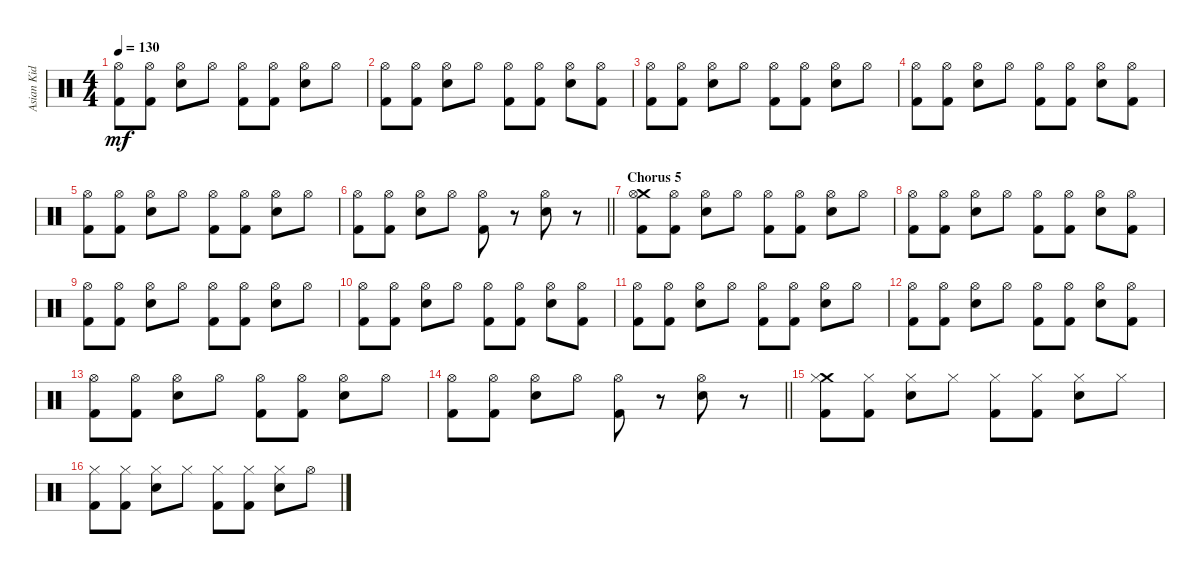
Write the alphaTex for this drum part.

\track ("Asian Kid" "Asian Kid") {instrument percussion}
\staff {score}
\articulation defaults
\ts (4 4)
\tempo 130
\clef neutral
\ks c
("Hi-Hat (open)" "Kick (hit) 2").8{dy mf} ("Hi-Hat (open)" "Kick (hit) 2").8 ("Hi-Hat (open)" "Electric Snare (hit)").8 "Hi-Hat (open)".8 ("Hi-Hat (open)" "Kick (hit) 2").8 ("Hi-Hat (open)" "Kick (hit) 2").8 ("Hi-Hat (open)" "Electric Snare (hit)").8 "Hi-Hat (open)".8 |
("Hi-Hat (open)" "Kick (hit) 2").8 ("Hi-Hat (open)" "Kick (hit) 2").8 ("Hi-Hat (open)" "Electric Snare (hit)").8 "Hi-Hat (open)".8 ("Hi-Hat (open)" "Kick (hit) 2").8 ("Hi-Hat (open)" "Kick (hit) 2").8 ("Hi-Hat (open)" "Electric Snare (hit)").8 ("Hi-Hat (open)" "Kick (hit) 2").8 |
("Hi-Hat (open)" "Kick (hit) 2").8 ("Hi-Hat (open)" "Kick (hit) 2").8 ("Hi-Hat (open)" "Electric Snare (hit)").8 "Hi-Hat (open)".8 ("Hi-Hat (open)" "Kick (hit) 2").8 ("Hi-Hat (open)" "Kick (hit) 2").8 ("Hi-Hat (open)" "Electric Snare (hit)").8 "Hi-Hat (open)".8 |
("Hi-Hat (open)" "Kick (hit) 2").8 ("Hi-Hat (open)" "Kick (hit) 2").8 ("Hi-Hat (open)" "Electric Snare (hit)").8 "Hi-Hat (open)".8 ("Hi-Hat (open)" "Kick (hit) 2").8 ("Hi-Hat (open)" "Kick (hit) 2").8 ("Hi-Hat (open)" "Electric Snare (hit)").8 ("Hi-Hat (open)" "Kick (hit) 2").8 |
("Hi-Hat (open)" "Kick (hit) 2").8 ("Hi-Hat (open)" "Kick (hit) 2").8 ("Hi-Hat (open)" "Electric Snare (hit)").8 "Hi-Hat (open)".8 ("Hi-Hat (open)" "Kick (hit) 2").8 ("Hi-Hat (open)" "Kick (hit) 2").8 ("Hi-Hat (open)" "Electric Snare (hit)").8 "Hi-Hat (open)".8 |
\barLineRight lightlight
("Hi-Hat (open)" "Kick (hit) 2").8 ("Hi-Hat (open)" "Kick (hit) 2").8 ("Hi-Hat (open)" "Electric Snare (hit)").8 "Hi-Hat (open)".8 ("Hi-Hat (open)" "Kick (hit) 2").8 r.8 ("Hi-Hat (open)" "Electric Snare (hit)").8 r.8 |
\section ("" "Chorus 5")
("Crash medium (hit)" "Hi-Hat (open)" "Kick (hit) 2").8 ("Hi-Hat (open)" "Kick (hit) 2").8 ("Hi-Hat (open)" "Electric Snare (hit)").8 "Hi-Hat (open)".8 ("Hi-Hat (open)" "Kick (hit) 2").8 ("Hi-Hat (open)" "Kick (hit) 2").8 ("Hi-Hat (open)" "Electric Snare (hit)").8 "Hi-Hat (open)".8 |
("Hi-Hat (open)" "Kick (hit) 2").8 ("Hi-Hat (open)" "Kick (hit) 2").8 ("Hi-Hat (open)" "Electric Snare (hit)").8 "Hi-Hat (open)".8 ("Hi-Hat (open)" "Kick (hit) 2").8 ("Hi-Hat (open)" "Kick (hit) 2").8 ("Hi-Hat (open)" "Electric Snare (hit)").8 ("Hi-Hat (open)" "Kick (hit) 2").8 |
("Hi-Hat (open)" "Kick (hit) 2").8 ("Hi-Hat (open)" "Kick (hit) 2").8 ("Hi-Hat (open)" "Electric Snare (hit)").8 "Hi-Hat (open)".8 ("Hi-Hat (open)" "Kick (hit) 2").8 ("Hi-Hat (open)" "Kick (hit) 2").8 ("Hi-Hat (open)" "Electric Snare (hit)").8 "Hi-Hat (open)".8 |
("Hi-Hat (open)" "Kick (hit) 2").8 ("Hi-Hat (open)" "Kick (hit) 2").8 ("Hi-Hat (open)" "Electric Snare (hit)").8 "Hi-Hat (open)".8 ("Hi-Hat (open)" "Kick (hit) 2").8 ("Hi-Hat (open)" "Kick (hit) 2").8 ("Hi-Hat (open)" "Electric Snare (hit)").8 ("Hi-Hat (open)" "Kick (hit) 2").8 |
("Hi-Hat (open)" "Kick (hit) 2").8 ("Hi-Hat (open)" "Kick (hit) 2").8 ("Hi-Hat (open)" "Electric Snare (hit)").8 "Hi-Hat (open)".8 ("Hi-Hat (open)" "Kick (hit) 2").8 ("Hi-Hat (open)" "Kick (hit) 2").8 ("Hi-Hat (open)" "Electric Snare (hit)").8 "Hi-Hat (open)".8 |
("Hi-Hat (open)" "Kick (hit) 2").8 ("Hi-Hat (open)" "Kick (hit) 2").8 ("Hi-Hat (open)" "Electric Snare (hit)").8 "Hi-Hat (open)".8 ("Hi-Hat (open)" "Kick (hit) 2").8 ("Hi-Hat (open)" "Kick (hit) 2").8 ("Hi-Hat (open)" "Electric Snare (hit)").8 ("Hi-Hat (open)" "Kick (hit) 2").8 |
("Hi-Hat (open)" "Kick (hit) 2").8 ("Hi-Hat (open)" "Kick (hit) 2").8 ("Hi-Hat (open)" "Electric Snare (hit)").8 "Hi-Hat (open)".8 ("Hi-Hat (open)" "Kick (hit) 2").8 ("Hi-Hat (open)" "Kick (hit) 2").8 ("Hi-Hat (open)" "Electric Snare (hit)").8 "Hi-Hat (open)".8 |
\barLineRight lightlight
("Hi-Hat (open)" "Kick (hit) 2").8 ("Hi-Hat (open)" "Kick (hit) 2").8 ("Hi-Hat (open)" "Electric Snare (hit)").8 "Hi-Hat (open)".8 ("Hi-Hat (open)" "Kick (hit) 2").8 r.8 ("Hi-Hat (open)" "Electric Snare (hit)").8 r.8 |
("Crash medium (hit)" "Hi-Hat (closed)" "Kick (hit) 2").8 ("Hi-Hat (closed)" "Kick (hit) 2").8 ("Hi-Hat (closed)" "Electric Snare (hit)").8 "Hi-Hat (closed)".8 ("Hi-Hat (closed)" "Kick (hit) 2").8 ("Hi-Hat (closed)" "Kick (hit) 2").8 ("Hi-Hat (closed)" "Electric Snare (hit)").8 "Hi-Hat (closed)".8 |
("Hi-Hat (closed)" "Kick (hit) 2").8 ("Hi-Hat (closed)" "Kick (hit) 2").8 ("Hi-Hat (closed)" "Electric Snare (hit)").8 "Hi-Hat (closed)".8 ("Hi-Hat (closed)" "Kick (hit) 2").8 ("Hi-Hat (closed)" "Kick (hit) 2").8 ("Hi-Hat (closed)" "Electric Snare (hit)").8 "Hi-Hat (open)".8
